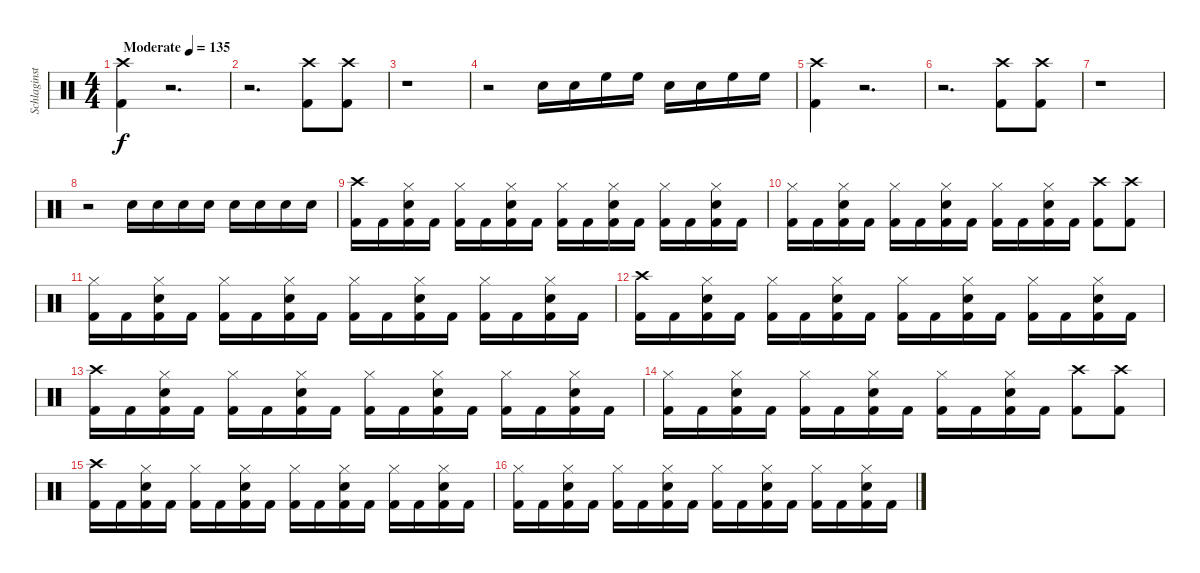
\track ("Schlaginstrumente - Auswahl" "Schlaginst") {instrument percussion}
\staff {score}
\articulation defaults
\ts (4 4)
\tempo (135 "Moderate")
\clef neutral
\ks c
("Crash high (hit)" "Kick (hit) 2").4{dy f} r.2{d} |
r.2{d} ("Crash high (hit)" "Kick (hit) 2").8 ("Crash high (hit)" "Kick (hit) 2").8 |
r.1 |
r.2 "Snare (hit) 2".16 "Snare (hit) 2".16 "High Floor Tom (hit)".16 "High Floor Tom (hit)".16 "Snare (hit) 2".16 "Snare (hit) 2".16 "High Floor Tom (hit)".16 "High Floor Tom (hit)".16 |
("Crash high (hit)" "Kick (hit) 2").4 r.2{d} |
r.2{d} ("Crash high (hit)" "Kick (hit) 2").8 ("Crash high (hit)" "Kick (hit) 2").8 |
r.1 |
r.2 "Snare (hit) 2".16 "Snare (hit) 2".16 "Snare (hit) 2".16 "Snare (hit) 2".16 "Snare (hit) 2".16 "Snare (hit) 2".16 "Snare (hit) 2".16 "Snare (hit) 2".16 |
("Crash high (hit)" "Kick (hit) 2").16 "Kick (hit) 2".16 ("Hi-Hat (closed)" "Snare (hit) 2" "Kick (hit) 2").16 "Kick (hit) 2".16 ("Hi-Hat (closed)" "Kick (hit) 2").16 "Kick (hit) 2".16 ("Hi-Hat (closed)" "Snare (hit) 2" "Kick (hit) 2").16 "Kick (hit) 2".16 ("Hi-Hat (closed)" "Kick (hit) 2").16 "Kick (hit) 2".16 ("Hi-Hat (closed)" "Snare (hit) 2" "Kick (hit) 2").16 "Kick (hit) 2".16 ("Hi-Hat (closed)" "Kick (hit) 2").16 "Kick (hit) 2".16 ("Hi-Hat (closed)" "Snare (hit) 2" "Kick (hit) 2").16 "Kick (hit) 2".16 |
("Hi-Hat (closed)" "Kick (hit) 2").16 "Kick (hit) 2".16 ("Hi-Hat (closed)" "Snare (hit) 2" "Kick (hit) 2").16 "Kick (hit) 2".16 ("Hi-Hat (closed)" "Kick (hit) 2").16 "Kick (hit) 2".16 ("Hi-Hat (closed)" "Snare (hit) 2" "Kick (hit) 2").16 "Kick (hit) 2".16 ("Hi-Hat (closed)" "Kick (hit) 2").16 "Kick (hit) 2".16 ("Hi-Hat (closed)" "Snare (hit) 2" "Kick (hit) 2").16 "Kick (hit) 2".16 ("Crash high (hit)" "Kick (hit) 2").8 ("Crash high (hit)" "Kick (hit) 2").8 |
("Hi-Hat (closed)" "Kick (hit) 2").16 "Kick (hit) 2".16 ("Hi-Hat (closed)" "Snare (hit) 2" "Kick (hit) 2").16 "Kick (hit) 2".16 ("Hi-Hat (closed)" "Kick (hit) 2").16 "Kick (hit) 2".16 ("Hi-Hat (closed)" "Snare (hit) 2" "Kick (hit) 2").16 "Kick (hit) 2".16 ("Hi-Hat (closed)" "Kick (hit) 2").16 "Kick (hit) 2".16 ("Hi-Hat (closed)" "Snare (hit) 2" "Kick (hit) 2").16 "Kick (hit) 2".16 ("Hi-Hat (closed)" "Kick (hit) 2").16 "Kick (hit) 2".16 ("Hi-Hat (closed)" "Snare (hit) 2" "Kick (hit) 2").16 "Kick (hit) 2".16 |
("Crash high (hit)" "Kick (hit) 2").16 "Kick (hit) 2".16 ("Hi-Hat (closed)" "Snare (hit) 2" "Kick (hit) 2").16 "Kick (hit) 2".16 ("Hi-Hat (closed)" "Kick (hit) 2").16 "Kick (hit) 2".16 ("Hi-Hat (closed)" "Snare (hit) 2" "Kick (hit) 2").16 "Kick (hit) 2".16 ("Hi-Hat (closed)" "Kick (hit) 2").16 "Kick (hit) 2".16 ("Hi-Hat (closed)" "Snare (hit) 2" "Kick (hit) 2").16 "Kick (hit) 2".16 ("Hi-Hat (closed)" "Kick (hit) 2").16 "Kick (hit) 2".16 ("Hi-Hat (closed)" "Snare (hit) 2" "Kick (hit) 2").16 "Kick (hit) 2".16 |
("Crash high (hit)" "Kick (hit) 2").16 "Kick (hit) 2".16 ("Hi-Hat (closed)" "Snare (hit) 2" "Kick (hit) 2").16 "Kick (hit) 2".16 ("Hi-Hat (closed)" "Kick (hit) 2").16 "Kick (hit) 2".16 ("Hi-Hat (closed)" "Snare (hit) 2" "Kick (hit) 2").16 "Kick (hit) 2".16 ("Hi-Hat (closed)" "Kick (hit) 2").16 "Kick (hit) 2".16 ("Hi-Hat (closed)" "Snare (hit) 2" "Kick (hit) 2").16 "Kick (hit) 2".16 ("Hi-Hat (closed)" "Kick (hit) 2").16 "Kick (hit) 2".16 ("Hi-Hat (closed)" "Snare (hit) 2" "Kick (hit) 2").16 "Kick (hit) 2".16 |
("Hi-Hat (closed)" "Kick (hit) 2").16 "Kick (hit) 2".16 ("Hi-Hat (closed)" "Snare (hit) 2" "Kick (hit) 2").16 "Kick (hit) 2".16 ("Hi-Hat (closed)" "Kick (hit) 2").16 "Kick (hit) 2".16 ("Hi-Hat (closed)" "Snare (hit) 2" "Kick (hit) 2").16 "Kick (hit) 2".16 ("Hi-Hat (closed)" "Kick (hit) 2").16 "Kick (hit) 2".16 ("Hi-Hat (closed)" "Snare (hit) 2" "Kick (hit) 2").16 "Kick (hit) 2".16 ("Crash high (hit)" "Kick (hit) 2").8 ("Crash high (hit)" "Kick (hit) 2").8 |
("Crash high (hit)" "Kick (hit) 2").16 "Kick (hit) 2".16 ("Hi-Hat (closed)" "Snare (hit) 2" "Kick (hit) 2").16 "Kick (hit) 2".16 ("Hi-Hat (closed)" "Kick (hit) 2").16 "Kick (hit) 2".16 ("Hi-Hat (closed)" "Snare (hit) 2" "Kick (hit) 2").16 "Kick (hit) 2".16 ("Hi-Hat (closed)" "Kick (hit) 2").16 "Kick (hit) 2".16 ("Hi-Hat (closed)" "Snare (hit) 2" "Kick (hit) 2").16 "Kick (hit) 2".16 ("Hi-Hat (closed)" "Kick (hit) 2").16 "Kick (hit) 2".16 ("Hi-Hat (closed)" "Snare (hit) 2" "Kick (hit) 2").16 "Kick (hit) 2".16 |
("Hi-Hat (closed)" "Kick (hit) 2").16 "Kick (hit) 2".16 ("Hi-Hat (closed)" "Snare (hit) 2" "Kick (hit) 2").16 "Kick (hit) 2".16 ("Hi-Hat (closed)" "Kick (hit) 2").16 "Kick (hit) 2".16 ("Hi-Hat (closed)" "Snare (hit) 2" "Kick (hit) 2").16 "Kick (hit) 2".16 ("Hi-Hat (closed)" "Kick (hit) 2").16 "Kick (hit) 2".16 ("Hi-Hat (closed)" "Snare (hit) 2" "Kick (hit) 2").16 "Kick (hit) 2".16 ("Hi-Hat (closed)" "Kick (hit) 2").16 "Kick (hit) 2".16 ("Hi-Hat (closed)" "Snare (hit) 2" "Kick (hit) 2").16 "Kick (hit) 2".16
